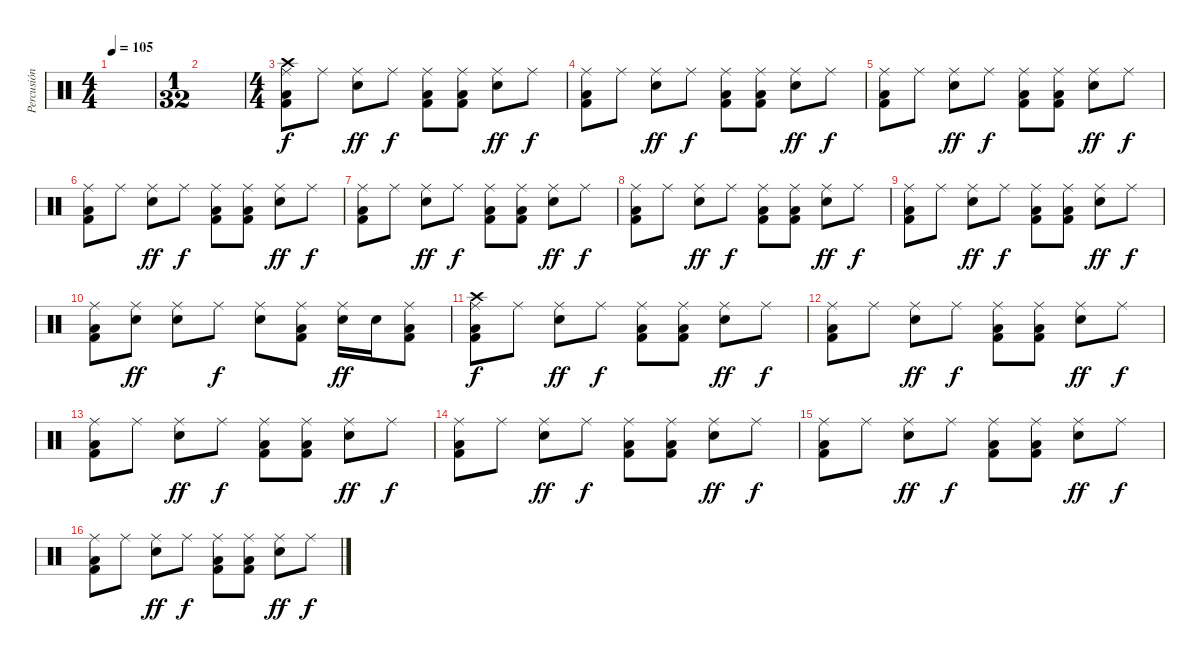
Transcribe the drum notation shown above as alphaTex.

\track ("Percusión" "Percusión") {instrument percussion}
\staff {score}
\articulation defaults
\ts (4 4)
\tempo 105
\clef neutral
\ks c
|
\ts (1 32)
|
\ts (4 4)
("Low Floor Tom (hit)" "Kick (hit) 2" "Ride (middle)" "Crash high (hit)").8{dy f} "Ride (middle)".8 ("Electric Snare (hit)" "Ride (middle)").8{dy ff} "Ride (middle)".8{dy f} ("Low Floor Tom (hit)" "Kick (hit) 2" "Ride (middle)").8 ("Low Floor Tom (hit)" "Kick (hit) 2" "Ride (middle)").8 ("Electric Snare (hit)" "Ride (middle)").8{dy ff} "Ride (middle)".8{dy f} |
("Low Floor Tom (hit)" "Kick (hit) 2" "Ride (middle)").8 "Ride (middle)".8 ("Electric Snare (hit)" "Ride (middle)").8{dy ff} "Ride (middle)".8{dy f} ("Low Floor Tom (hit)" "Kick (hit) 2" "Ride (middle)").8 ("Low Floor Tom (hit)" "Kick (hit) 2" "Ride (middle)").8 ("Electric Snare (hit)" "Ride (middle)").8{dy ff} "Ride (middle)".8{dy f} |
("Low Floor Tom (hit)" "Kick (hit) 2" "Ride (middle)").8 "Ride (middle)".8 ("Electric Snare (hit)" "Ride (middle)").8{dy ff} "Ride (middle)".8{dy f} ("Low Floor Tom (hit)" "Kick (hit) 2" "Ride (middle)").8 ("Low Floor Tom (hit)" "Kick (hit) 2" "Ride (middle)").8 ("Electric Snare (hit)" "Ride (middle)").8{dy ff} "Ride (middle)".8{dy f} |
("Low Floor Tom (hit)" "Kick (hit) 2" "Ride (middle)").8 "Ride (middle)".8 ("Electric Snare (hit)" "Ride (middle)").8{dy ff} "Ride (middle)".8{dy f} ("Low Floor Tom (hit)" "Kick (hit) 2" "Ride (middle)").8 ("Low Floor Tom (hit)" "Kick (hit) 2" "Ride (middle)").8 ("Electric Snare (hit)" "Ride (middle)").8{dy ff} "Ride (middle)".8{dy f} |
("Low Floor Tom (hit)" "Kick (hit) 2" "Ride (middle)").8 "Ride (middle)".8 ("Electric Snare (hit)" "Ride (middle)").8{dy ff} "Ride (middle)".8{dy f} ("Low Floor Tom (hit)" "Kick (hit) 2" "Ride (middle)").8 ("Low Floor Tom (hit)" "Kick (hit) 2" "Ride (middle)").8 ("Electric Snare (hit)" "Ride (middle)").8{dy ff} "Ride (middle)".8{dy f} |
("Low Floor Tom (hit)" "Kick (hit) 2" "Ride (middle)").8 "Ride (middle)".8 ("Electric Snare (hit)" "Ride (middle)").8{dy ff} "Ride (middle)".8{dy f} ("Low Floor Tom (hit)" "Kick (hit) 2" "Ride (middle)").8 ("Low Floor Tom (hit)" "Kick (hit) 2" "Ride (middle)").8 ("Electric Snare (hit)" "Ride (middle)").8{dy ff} "Ride (middle)".8{dy f} |
("Low Floor Tom (hit)" "Kick (hit) 2" "Ride (middle)").8 "Ride (middle)".8 ("Electric Snare (hit)" "Ride (middle)").8{dy ff} "Ride (middle)".8{dy f} ("Low Floor Tom (hit)" "Kick (hit) 2" "Ride (middle)").8 ("Low Floor Tom (hit)" "Kick (hit) 2" "Ride (middle)").8 ("Electric Snare (hit)" "Ride (middle)").8{dy ff} "Ride (middle)".8{dy f} |
("Low Floor Tom (hit)" "Kick (hit) 2" "Ride (middle)").8 ("Electric Snare (hit)" "Ride (middle)").8{dy ff} ("Electric Snare (hit)" "Ride (middle)").8 "Ride (middle)".8{dy f} ("Electric Snare (hit)" "Ride (middle)").8 ("Low Floor Tom (hit)" "Kick (hit) 2" "Ride (middle)").8 ("Electric Snare (hit)" "Ride (middle)").16{dy ff} "Electric Snare (hit)".16 ("Low Floor Tom (hit)" "Kick (hit) 2" "Ride (middle)").8 |
("Low Floor Tom (hit)" "Kick (hit) 2" "Ride (middle)" "Crash high (hit)").8{dy f} "Ride (middle)".8 ("Electric Snare (hit)" "Ride (middle)").8{dy ff} "Ride (middle)".8{dy f} ("Low Floor Tom (hit)" "Kick (hit) 2" "Ride (middle)").8 ("Low Floor Tom (hit)" "Kick (hit) 2" "Ride (middle)").8 ("Electric Snare (hit)" "Ride (middle)").8{dy ff} "Ride (middle)".8{dy f} |
("Low Floor Tom (hit)" "Kick (hit) 2" "Ride (middle)").8 "Ride (middle)".8 ("Electric Snare (hit)" "Ride (middle)").8{dy ff} "Ride (middle)".8{dy f} ("Low Floor Tom (hit)" "Kick (hit) 2" "Ride (middle)").8 ("Low Floor Tom (hit)" "Kick (hit) 2" "Ride (middle)").8 ("Electric Snare (hit)" "Ride (middle)").8{dy ff} "Ride (middle)".8{dy f} |
("Low Floor Tom (hit)" "Kick (hit) 2" "Ride (middle)").8 "Ride (middle)".8 ("Electric Snare (hit)" "Ride (middle)").8{dy ff} "Ride (middle)".8{dy f} ("Low Floor Tom (hit)" "Kick (hit) 2" "Ride (middle)").8 ("Low Floor Tom (hit)" "Kick (hit) 2" "Ride (middle)").8 ("Electric Snare (hit)" "Ride (middle)").8{dy ff} "Ride (middle)".8{dy f} |
("Low Floor Tom (hit)" "Kick (hit) 2" "Ride (middle)").8 "Ride (middle)".8 ("Electric Snare (hit)" "Ride (middle)").8{dy ff} "Ride (middle)".8{dy f} ("Low Floor Tom (hit)" "Kick (hit) 2" "Ride (middle)").8 ("Low Floor Tom (hit)" "Kick (hit) 2" "Ride (middle)").8 ("Electric Snare (hit)" "Ride (middle)").8{dy ff} "Ride (middle)".8{dy f} |
("Low Floor Tom (hit)" "Kick (hit) 2" "Ride (middle)").8 "Ride (middle)".8 ("Electric Snare (hit)" "Ride (middle)").8{dy ff} "Ride (middle)".8{dy f} ("Low Floor Tom (hit)" "Kick (hit) 2" "Ride (middle)").8 ("Low Floor Tom (hit)" "Kick (hit) 2" "Ride (middle)").8 ("Electric Snare (hit)" "Ride (middle)").8{dy ff} "Ride (middle)".8{dy f} |
("Low Floor Tom (hit)" "Kick (hit) 2" "Ride (middle)").8 "Ride (middle)".8 ("Electric Snare (hit)" "Ride (middle)").8{dy ff} "Ride (middle)".8{dy f} ("Low Floor Tom (hit)" "Kick (hit) 2" "Ride (middle)").8 ("Low Floor Tom (hit)" "Kick (hit) 2" "Ride (middle)").8 ("Electric Snare (hit)" "Ride (middle)").8{dy ff} "Ride (middle)".8{dy f}
